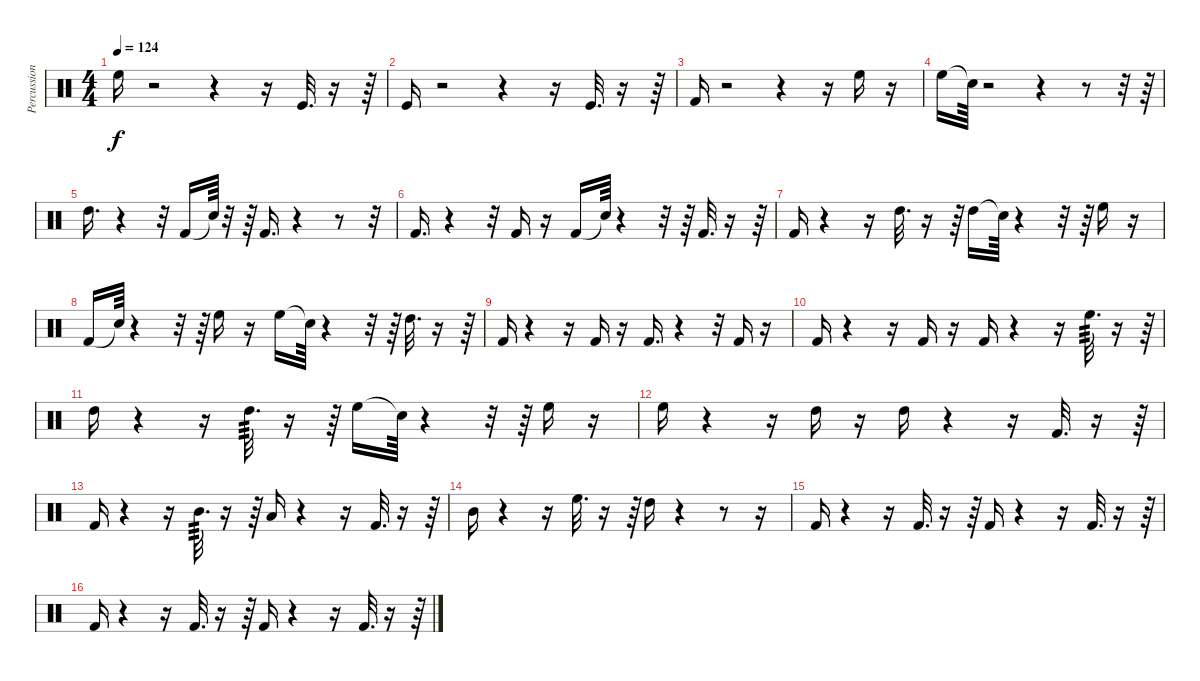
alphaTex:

\track ("Percussion" "Percussion") {instrument percussion}
\staff {score}
\articulation defaults
\ts (4 4)
\tempo 124
\clef neutral
\ks c "High Floor Tom (hit)".16{dy f}
r.2 r.4 r.16 "Kick (hit)".32{d} r.16 r.64 |
"Kick (hit)".16 r.2 r.4 r.16 "Kick (hit)".32{d} r.16 r.64 |
"Kick (hit) 2".16 r.2 r.4 r.16 "High Floor Tom (hit)".16 r.16 |
"High Floor Tom (hit)".16 "Snare (hit)"{t}.64 r.2 r.4 r.8 r.32 r.64 |
"High Tom (hit)".16{d} r.4 r.32 "Kick (hit) 2".16 "Snare (hit)"{t}.64 r.32 r.64 "Kick (hit) 2".16{d} r.4 r.8 r.32 |
"Kick (hit) 2".16{d} r.4 r.32 "Kick (hit) 2".16 r.16 "Kick (hit) 2".16 "Snare (hit)"{t}.64 r.4 r.32 r.64 "Kick (hit) 2".32{d} r.16 r.64 |
"Kick (hit) 2".16 r.4 r.16 "High Tom (hit)".32{d} r.16 r.64 "High Tom (hit)".16 "Snare (hit)"{t}.64 r.4 r.32 r.64 "High Floor Tom (hit)".16 r.16 |
"Kick (hit) 2".16 "Snare (hit)"{t}.64 r.4 r.32 r.64 "High Floor Tom (hit)".16 r.16 "High Floor Tom (hit)".16 "Snare (hit)"{t}.64 r.4 r.32 r.64 "High Tom (hit)".32{d} r.16 r.64 |
"Kick (hit) 2".16 r.4 r.16 "Kick (hit) 2".16 r.16 "Kick (hit) 2".16{d} r.4 r.32 "Kick (hit) 2".16 r.16 |
"Kick (hit) 2".16 r.4 r.16 "Kick (hit) 2".16 r.16 "Kick (hit) 2".16 r.4 r.16 "High Floor Tom (hit)".32{d tp 3} r.16 r.64 |
"High Tom (hit)".16 r.4 r.16 "High Tom (hit)".32{d tp 3} r.16 r.64 "High Floor Tom (hit)".16 "Snare (hit)"{t}.64 r.4 r.32 r.64 "High Floor Tom (hit)".16 r.16 |
"High Floor Tom (hit)".16 r.4 r.16 "High Tom (hit)".16 r.16 "High Tom (hit)".16 r.4 r.16 "Kick (hit) 2".32{d} r.16 r.64 |
"Kick (hit) 2".16 r.4 r.16 "Mid Tom (hit)".32{d tp 3} r.16 r.64 "Low Tom (hit)".16 r.4 r.16 "Kick (hit) 2".32{d} r.16 r.64 |
"Mid Tom (hit)".16 r.4 r.16 "High Floor Tom (hit)".32{d} r.16 r.64 "High Tom (hit)".16 r.4 r.8 r.16 |
"Kick (hit) 2".16 r.4 r.16 "Kick (hit) 2".32{d} r.16 r.64 "Kick (hit) 2".16 r.4 r.16 "Kick (hit) 2".32{d} r.16 r.64 |
"Kick (hit) 2".16 r.4 r.16 "Kick (hit) 2".32{d} r.16 r.64 "Kick (hit) 2".16 r.4 r.16 "Kick (hit) 2".32{d} r.16 r.64
